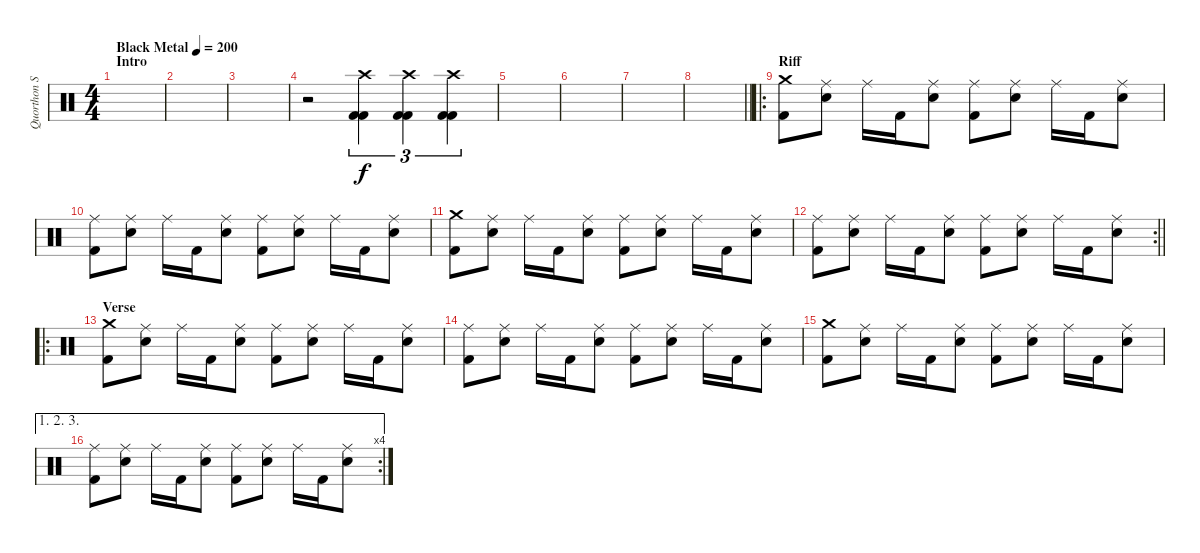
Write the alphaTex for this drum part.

\track ("Quorthon Seth" "Quorthon S") {instrument percussion}
\staff {score}
\articulation defaults
\ts (4 4)
\section ("" "Intro")
\tempo (200 "Black Metal")
\clef neutral
\ks c
|
|
|
r.2 ("Crash high (hit)" "Kick (hit) 2" "Kick (hit) 2").4{tu (3 2)} ("Crash high (hit)" "Kick (hit) 2" "Kick (hit) 2").4{tu (3 2)} ("Crash high (hit)" "Kick (hit) 2" "Kick (hit) 2").4{tu (3 2)} |
|
|
|
\barLineRight lightlight
|
\ro
\section ("" "Riff")
("Crash medium (hit)" "Kick (hit) 2").8 ("Ride (middle)" "Snare (hit) 2").8 "Ride (middle)".16 "Kick (hit) 2".16 ("Ride (middle)" "Snare (hit) 2").8 ("Ride (middle)" "Kick (hit) 2").8 ("Ride (middle)" "Snare (hit) 2").8 "Ride (middle)".16 "Kick (hit) 2".16 ("Ride (middle)" "Snare (hit) 2").8 |
("Ride (middle)" "Kick (hit) 2").8 ("Ride (middle)" "Snare (hit) 2").8 "Ride (middle)".16 "Kick (hit) 2".16 ("Ride (middle)" "Snare (hit) 2").8 ("Ride (middle)" "Kick (hit) 2").8 ("Ride (middle)" "Snare (hit) 2").8 "Ride (middle)".16 "Kick (hit) 2".16 ("Ride (middle)" "Snare (hit) 2").8 |
("Crash medium (hit)" "Kick (hit) 2").8 ("Ride (middle)" "Snare (hit) 2").8 "Ride (middle)".16 "Kick (hit) 2".16 ("Ride (middle)" "Snare (hit) 2").8 ("Ride (middle)" "Kick (hit) 2").8 ("Ride (middle)" "Snare (hit) 2").8 "Ride (middle)".16 "Kick (hit) 2".16 ("Ride (middle)" "Snare (hit) 2").8 |
\rc 2
\barLineRight lightlight
("Ride (middle)" "Kick (hit) 2").8 ("Ride (middle)" "Snare (hit) 2").8 "Ride (middle)".16 "Kick (hit) 2".16 ("Ride (middle)" "Snare (hit) 2").8 ("Ride (middle)" "Kick (hit) 2").8 ("Ride (middle)" "Snare (hit) 2").8 "Ride (middle)".16 "Kick (hit) 2".16 ("Ride (middle)" "Snare (hit) 2").8 |
\ro
\section ("" "Verse")
("Crash medium (hit)" "Kick (hit) 2").8 ("Ride (middle)" "Snare (hit) 2").8 "Ride (middle)".16 "Kick (hit) 2".16 ("Ride (middle)" "Snare (hit) 2").8 ("Ride (middle)" "Kick (hit) 2").8 ("Ride (middle)" "Snare (hit) 2").8 "Ride (middle)".16 "Kick (hit) 2".16 ("Ride (middle)" "Snare (hit) 2").8 |
("Ride (middle)" "Kick (hit) 2").8 ("Ride (middle)" "Snare (hit) 2").8 "Ride (middle)".16 "Kick (hit) 2".16 ("Ride (middle)" "Snare (hit) 2").8 ("Ride (middle)" "Kick (hit) 2").8 ("Ride (middle)" "Snare (hit) 2").8 "Ride (middle)".16 "Kick (hit) 2".16 ("Ride (middle)" "Snare (hit) 2").8 |
("Crash medium (hit)" "Kick (hit) 2").8 ("Ride (middle)" "Snare (hit) 2").8 "Ride (middle)".16 "Kick (hit) 2".16 ("Ride (middle)" "Snare (hit) 2").8 ("Ride (middle)" "Kick (hit) 2").8 ("Ride (middle)" "Snare (hit) 2").8 "Ride (middle)".16 "Kick (hit) 2".16 ("Ride (middle)" "Snare (hit) 2").8 |
\ae (1 2 3)
\rc 4
("Ride (middle)" "Kick (hit) 2").8 ("Ride (middle)" "Snare (hit) 2").8 "Ride (middle)".16 "Kick (hit) 2".16 ("Ride (middle)" "Snare (hit) 2").8 ("Ride (middle)" "Kick (hit) 2").8 ("Ride (middle)" "Snare (hit) 2").8 "Ride (middle)".16 "Kick (hit) 2".16 ("Ride (middle)" "Snare (hit) 2").8
